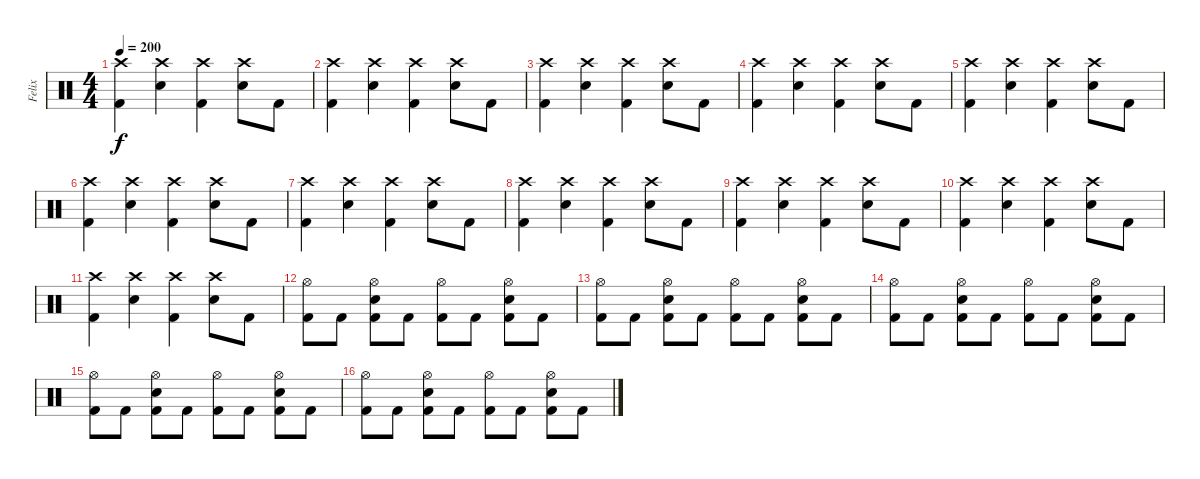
\track ("Felix" "Felix") {instrument percussion}
\staff {score}
\articulation defaults
\ts (4 4)
\tempo 200
\clef neutral
\ks c
("Crash high (hit)" "Kick (hit) 2").4{dy f} ("Crash high (hit)" "Electric Snare (hit)").4 ("Crash high (hit)" "Kick (hit) 2").4 ("Crash high (hit)" "Electric Snare (hit)").8 "Kick (hit) 2".8 |
("Crash high (hit)" "Kick (hit) 2").4 ("Crash high (hit)" "Electric Snare (hit)").4 ("Crash high (hit)" "Kick (hit) 2").4 ("Crash high (hit)" "Electric Snare (hit)").8 "Kick (hit) 2".8 |
("Crash high (hit)" "Kick (hit) 2").4 ("Crash high (hit)" "Electric Snare (hit)").4 ("Crash high (hit)" "Kick (hit) 2").4 ("Crash high (hit)" "Electric Snare (hit)").8 "Kick (hit) 2".8 |
("Crash high (hit)" "Kick (hit) 2").4 ("Crash high (hit)" "Electric Snare (hit)").4 ("Crash high (hit)" "Kick (hit) 2").4 ("Crash high (hit)" "Electric Snare (hit)").8 "Kick (hit) 2".8 |
("Crash high (hit)" "Kick (hit) 2").4 ("Crash high (hit)" "Electric Snare (hit)").4 ("Crash high (hit)" "Kick (hit) 2").4 ("Crash high (hit)" "Electric Snare (hit)").8 "Kick (hit) 2".8 |
("Crash high (hit)" "Kick (hit) 2").4 ("Crash high (hit)" "Electric Snare (hit)").4 ("Crash high (hit)" "Kick (hit) 2").4 ("Crash high (hit)" "Electric Snare (hit)").8 "Kick (hit) 2".8 |
("Crash high (hit)" "Kick (hit) 2").4 ("Crash high (hit)" "Electric Snare (hit)").4 ("Crash high (hit)" "Kick (hit) 2").4 ("Crash high (hit)" "Electric Snare (hit)").8 "Kick (hit) 2".8 |
("Crash high (hit)" "Kick (hit) 2").4 ("Crash high (hit)" "Electric Snare (hit)").4 ("Crash high (hit)" "Kick (hit) 2").4 ("Crash high (hit)" "Electric Snare (hit)").8 "Kick (hit) 2".8 |
("Crash high (hit)" "Kick (hit) 2").4 ("Crash high (hit)" "Electric Snare (hit)").4 ("Crash high (hit)" "Kick (hit) 2").4 ("Crash high (hit)" "Electric Snare (hit)").8 "Kick (hit) 2".8 |
("Crash high (hit)" "Kick (hit) 2").4 ("Crash high (hit)" "Electric Snare (hit)").4 ("Crash high (hit)" "Kick (hit) 2").4 ("Crash high (hit)" "Electric Snare (hit)").8 "Kick (hit) 2".8 |
("Crash high (hit)" "Kick (hit) 2").4 ("Crash high (hit)" "Electric Snare (hit)").4 ("Crash high (hit)" "Kick (hit) 2").4 ("Crash high (hit)" "Electric Snare (hit)").8 "Kick (hit) 2".8 |
("Hi-Hat (open)" "Kick (hit) 2").8 "Kick (hit) 2".8 ("Hi-Hat (open)" "Electric Snare (hit)" "Kick (hit) 2").8 "Kick (hit) 2".8 ("Hi-Hat (open)" "Kick (hit) 2").8 "Kick (hit) 2".8 ("Hi-Hat (open)" "Electric Snare (hit)" "Kick (hit) 2").8 "Kick (hit) 2".8 |
("Hi-Hat (open)" "Kick (hit) 2").8 "Kick (hit) 2".8 ("Hi-Hat (open)" "Electric Snare (hit)" "Kick (hit) 2").8 "Kick (hit) 2".8 ("Hi-Hat (open)" "Kick (hit) 2").8 "Kick (hit) 2".8 ("Hi-Hat (open)" "Electric Snare (hit)" "Kick (hit) 2").8 "Kick (hit) 2".8 |
("Hi-Hat (open)" "Kick (hit) 2").8 "Kick (hit) 2".8 ("Hi-Hat (open)" "Electric Snare (hit)" "Kick (hit) 2").8 "Kick (hit) 2".8 ("Hi-Hat (open)" "Kick (hit) 2").8 "Kick (hit) 2".8 ("Hi-Hat (open)" "Electric Snare (hit)" "Kick (hit) 2").8 "Kick (hit) 2".8 |
("Hi-Hat (open)" "Kick (hit) 2").8 "Kick (hit) 2".8 ("Hi-Hat (open)" "Electric Snare (hit)" "Kick (hit) 2").8 "Kick (hit) 2".8 ("Hi-Hat (open)" "Kick (hit) 2").8 "Kick (hit) 2".8 ("Hi-Hat (open)" "Electric Snare (hit)" "Kick (hit) 2").8 "Kick (hit) 2".8 |
("Hi-Hat (open)" "Kick (hit) 2").8 "Kick (hit) 2".8 ("Hi-Hat (open)" "Electric Snare (hit)" "Kick (hit) 2").8 "Kick (hit) 2".8 ("Hi-Hat (open)" "Kick (hit) 2").8 "Kick (hit) 2".8 ("Hi-Hat (open)" "Electric Snare (hit)" "Kick (hit) 2").8 "Kick (hit) 2".8
